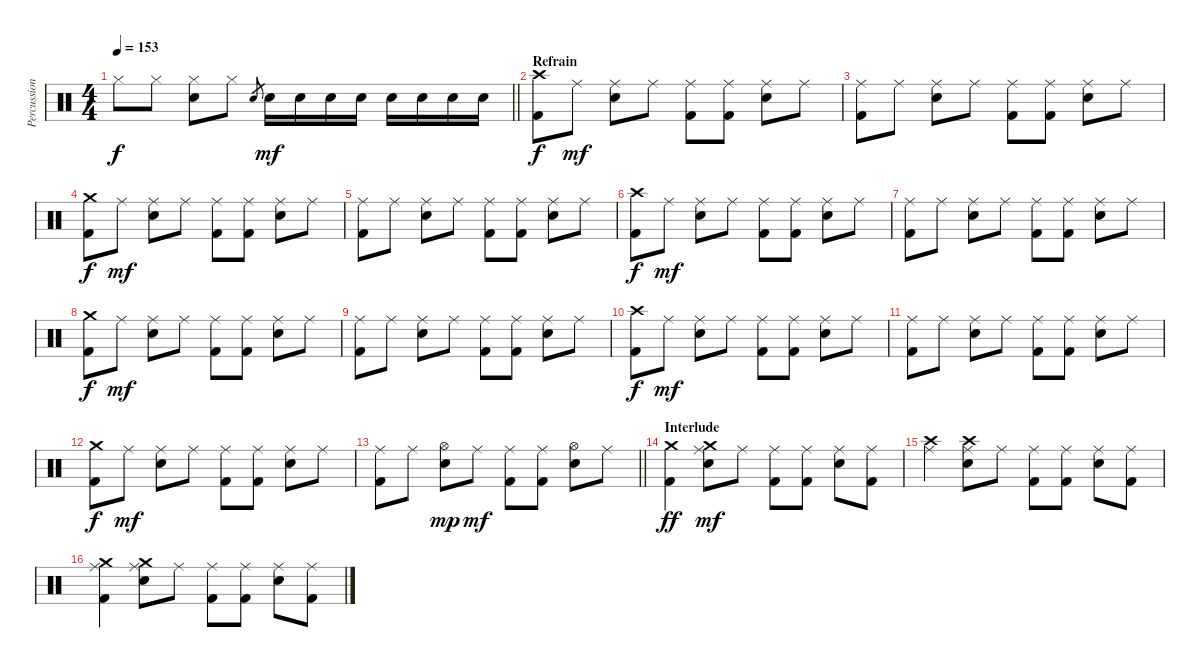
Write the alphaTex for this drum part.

\track ("Percussion" "Percussion") {instrument percussion}
\staff {score}
\articulation defaults
\ts (4 4)
\tempo 153
\clef neutral
\barLineRight lightlight
\ks c "Hi-Hat (closed)".8{dy f} "Hi-Hat (closed)".8
("Hi-Hat (closed)" "Electric Snare (hit)").8 "Hi-Hat (closed)".8 "Electric Snare (hit)".8{gr} "Electric Snare (hit)".16{dy mf} "Electric Snare (hit)".16 "Electric Snare (hit)".16 "Electric Snare (hit)".16 "Snare (hit) 2".16 "Snare (hit) 2".16 "Snare (hit) 2".16 "Snare (hit) 2".16 |
\section ("" "Refrain")
("Crash high (hit)" "Kick (hit) 2").8{dy f} "Ride (middle)".8{dy mf} ("Ride (middle)" "Electric Snare (hit)").8 "Ride (middle)".8 ("Ride (middle)" "Kick (hit) 2").8 ("Ride (middle)" "Kick (hit) 2").8 ("Ride (middle)" "Electric Snare (hit)").8 "Ride (middle)".8 |
("Ride (middle)" "Kick (hit) 2").8 "Ride (middle)".8 ("Ride (middle)" "Electric Snare (hit)").8 "Ride (middle)".8 ("Ride (middle)" "Kick (hit) 2").8 ("Ride (middle)" "Kick (hit) 2").8 ("Ride (middle)" "Electric Snare (hit)").8 "Ride (middle)".8 |
("Crash medium (hit)" "Kick (hit) 2").8{dy f} "Ride (middle)".8{dy mf} ("Ride (middle)" "Electric Snare (hit)").8 "Ride (middle)".8 ("Ride (middle)" "Kick (hit) 2").8 ("Ride (middle)" "Kick (hit) 2").8 ("Ride (middle)" "Electric Snare (hit)").8 "Ride (middle)".8 |
("Ride (middle)" "Kick (hit) 2").8 "Ride (middle)".8 ("Ride (middle)" "Electric Snare (hit)").8 "Ride (middle)".8 ("Ride (middle)" "Kick (hit) 2").8 ("Ride (middle)" "Kick (hit) 2").8 ("Ride (middle)" "Electric Snare (hit)").8 "Ride (middle)".8 |
("Crash high (hit)" "Kick (hit) 2").8{dy f} "Ride (middle)".8{dy mf} ("Ride (middle)" "Electric Snare (hit)").8 "Ride (middle)".8 ("Ride (middle)" "Kick (hit) 2").8 ("Ride (middle)" "Kick (hit) 2").8 ("Ride (middle)" "Electric Snare (hit)").8 "Ride (middle)".8 |
("Ride (middle)" "Kick (hit) 2").8 "Ride (middle)".8 ("Ride (middle)" "Electric Snare (hit)").8 "Ride (middle)".8 ("Ride (middle)" "Kick (hit) 2").8 ("Ride (middle)" "Kick (hit) 2").8 ("Ride (middle)" "Electric Snare (hit)").8 "Ride (middle)".8 |
("Crash medium (hit)" "Kick (hit) 2").8{dy f} "Ride (middle)".8{dy mf} ("Ride (middle)" "Electric Snare (hit)").8 "Ride (middle)".8 ("Ride (middle)" "Kick (hit) 2").8 ("Ride (middle)" "Kick (hit) 2").8 ("Ride (middle)" "Electric Snare (hit)").8 "Ride (middle)".8 |
("Ride (middle)" "Kick (hit) 2").8 "Ride (middle)".8 ("Ride (middle)" "Electric Snare (hit)").8 "Ride (middle)".8 ("Ride (middle)" "Kick (hit) 2").8 ("Ride (middle)" "Kick (hit) 2").8 ("Ride (middle)" "Electric Snare (hit)").8 "Ride (middle)".8 |
("Crash high (hit)" "Kick (hit) 2").8{dy f} "Ride (middle)".8{dy mf} ("Ride (middle)" "Electric Snare (hit)").8 "Ride (middle)".8 ("Ride (middle)" "Kick (hit) 2").8 ("Ride (middle)" "Kick (hit) 2").8 ("Ride (middle)" "Electric Snare (hit)").8 "Ride (middle)".8 |
("Ride (middle)" "Kick (hit) 2").8 "Ride (middle)".8 ("Ride (middle)" "Electric Snare (hit)").8 "Ride (middle)".8 ("Ride (middle)" "Kick (hit) 2").8 ("Ride (middle)" "Kick (hit) 2").8 ("Ride (middle)" "Electric Snare (hit)").8 "Ride (middle)".8 |
("Crash medium (hit)" "Kick (hit) 2").8{dy f} "Ride (middle)".8{dy mf} ("Ride (middle)" "Electric Snare (hit)").8 "Ride (middle)".8 ("Ride (middle)" "Kick (hit) 2").8 ("Ride (middle)" "Kick (hit) 2").8 ("Ride (middle)" "Electric Snare (hit)").8 "Ride (middle)".8 |
\barLineRight lightlight
("Ride (middle)" "Kick (hit) 2").8 "Ride (middle)".8 ("Hi-Hat (open)" "Electric Snare (hit)").8{dy mp} "Ride (middle)".8{dy mf} ("Ride (middle)" "Kick (hit) 2").8 ("Ride (middle)" "Kick (hit) 2").8 ("Hi-Hat (open)" "Electric Snare (hit)").8 "Ride (middle)".8 |
\section ("" "Interlude")
("Crash medium (hit)" "Kick (hit) 2").4{dy ff} ("Crash medium (hit)" "Ride (middle)" "Electric Snare (hit)").8{dy mf} "Ride (middle)".8 ("Ride (middle)" "Kick (hit) 2").8 ("Ride (middle)" "Kick (hit) 2").8 ("Ride (middle)" "Electric Snare (hit)").8 ("Ride (middle)" "Kick (hit) 2").8 |
("Crash high (hit)" "Ride (middle)").4 ("Crash high (hit)" "Ride (middle)" "Electric Snare (hit)").8 "Ride (middle)".8 ("Ride (middle)" "Kick (hit) 2").8 ("Ride (middle)" "Kick (hit) 2").8 ("Ride (middle)" "Electric Snare (hit)").8 ("Ride (middle)" "Kick (hit) 2").8 |
("Crash medium (hit)" "Ride (middle)" "Kick (hit) 2").4 ("Crash medium (hit)" "Ride (middle)" "Electric Snare (hit)").8 "Ride (middle)".8 ("Ride (middle)" "Kick (hit) 2").8 ("Ride (middle)" "Kick (hit) 2").8 ("Ride (middle)" "Electric Snare (hit)").8 ("Ride (middle)" "Kick (hit) 2").8
